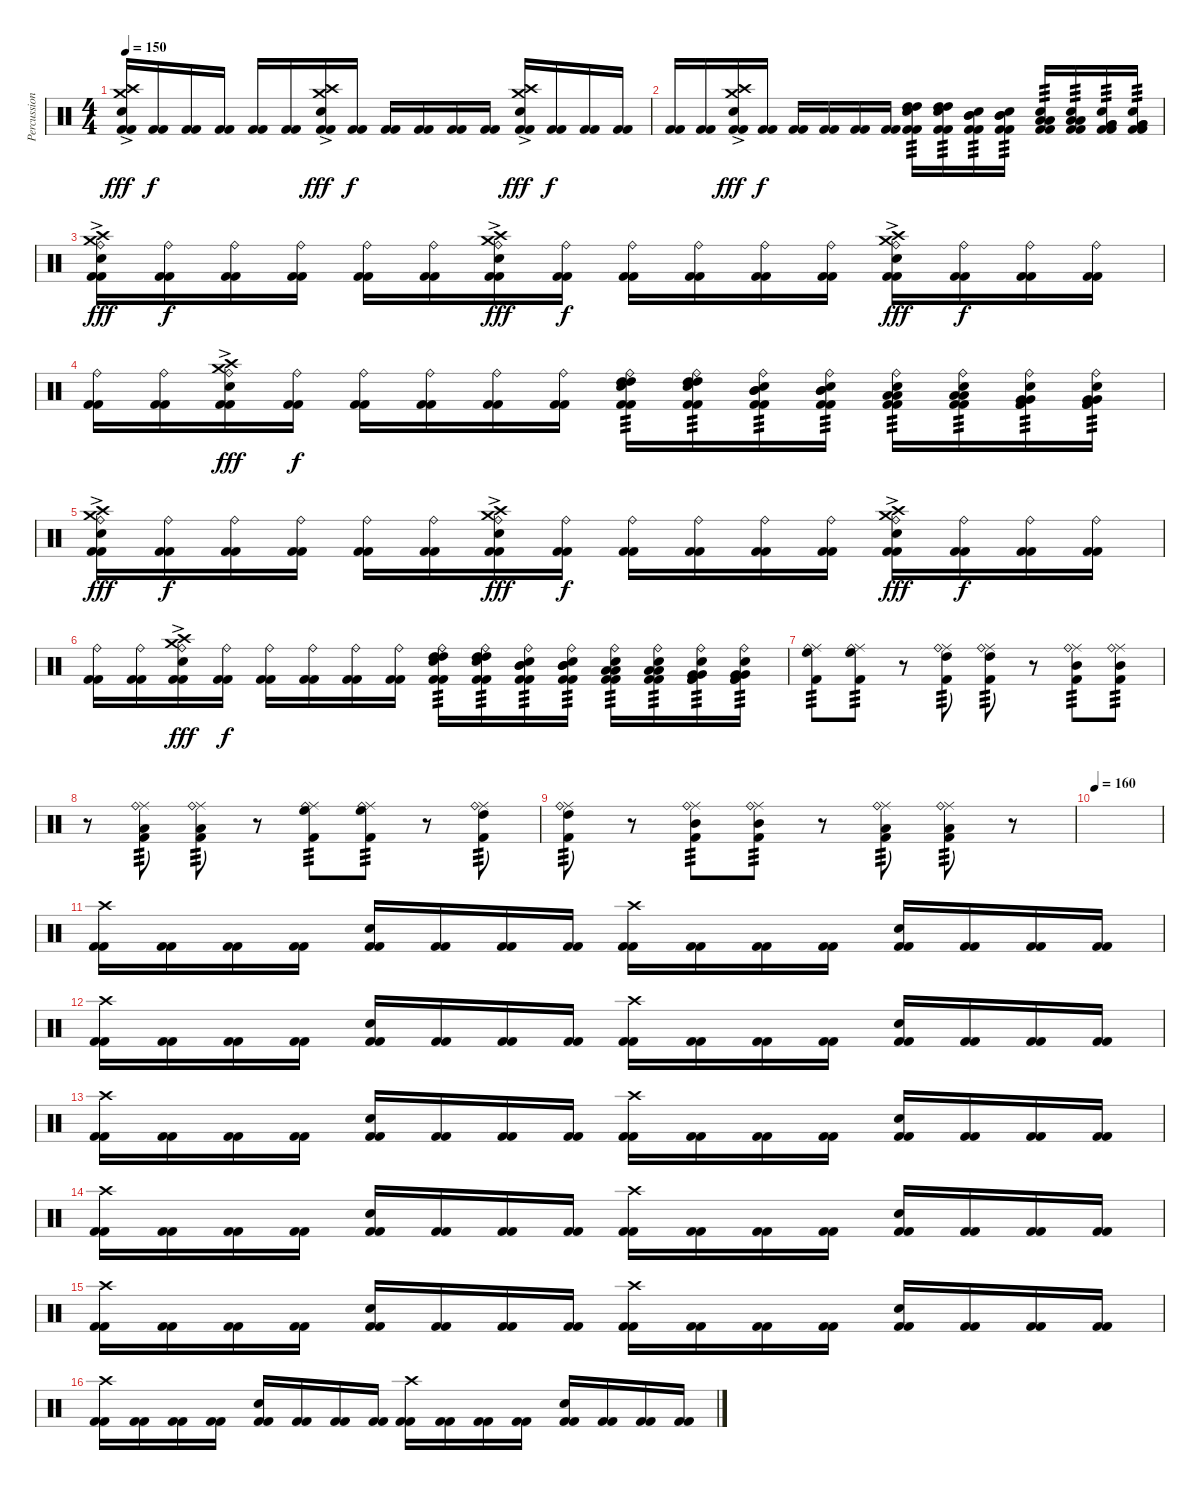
\track ("Percussions" "Percussion") {instrument percussion}
\staff {score}
\articulation defaults
\ts (4 4)
\tempo 150
\clef neutral
\ks c
("Snare (hit) 2"{ac} "Crash medium (hit)"{ac} "Crash high (hit)"{ac} "Kick (hit) 2" "Kick (hit) 2").16{dy fff} ("Kick (hit) 2" "Kick (hit) 2").16{dy f} ("Kick (hit) 2" "Kick (hit) 2").16 ("Kick (hit) 2" "Kick (hit) 2").16 ("Kick (hit) 2" "Kick (hit) 2").16 ("Kick (hit) 2" "Kick (hit) 2").16 ("Snare (hit) 2"{ac} "Crash medium (hit)"{ac} "Crash high (hit)"{ac} "Kick (hit) 2" "Kick (hit) 2").16{dy fff} ("Kick (hit) 2" "Kick (hit) 2").16{dy f} ("Kick (hit) 2" "Kick (hit) 2").16 ("Kick (hit) 2" "Kick (hit) 2").16 ("Kick (hit) 2" "Kick (hit) 2").16 ("Kick (hit) 2" "Kick (hit) 2").16 ("Snare (hit) 2"{ac} "Crash medium (hit)"{ac} "Crash high (hit)"{ac} "Kick (hit) 2" "Kick (hit) 2").16{dy fff} ("Kick (hit) 2" "Kick (hit) 2").16{dy f} ("Kick (hit) 2" "Kick (hit) 2").16 ("Kick (hit) 2" "Kick (hit) 2").16 |
("Kick (hit) 2" "Kick (hit) 2").16 ("Kick (hit) 2" "Kick (hit) 2").16 ("Snare (hit) 2"{ac} "Crash medium (hit)"{ac} "Crash high (hit)"{ac} "Kick (hit) 2" "Kick (hit) 2").16{dy fff} ("Kick (hit) 2" "Kick (hit) 2").16{dy f} ("Kick (hit) 2" "Kick (hit) 2").16 ("Kick (hit) 2" "Kick (hit) 2").16 ("Kick (hit) 2" "Kick (hit) 2").16 ("Kick (hit) 2" "Kick (hit) 2").16 ("Snare (hit) 2" "High Tom (hit)" "High Tom (hit)" "Kick (hit) 2" "Kick (hit) 2").16{tp 3} ("Snare (hit) 2" "High Tom (hit)" "High Tom (hit)" "Kick (hit) 2" "Kick (hit) 2").16{tp 3} ("Snare (hit) 2" "Mid Tom (hit)" "Mid Tom (hit)" "Kick (hit) 2" "Kick (hit) 2").16{tp 3} ("Snare (hit) 2" "Mid Tom (hit)" "Mid Tom (hit)" "Kick (hit) 2" "Kick (hit) 2").16{tp 3} ("Snare (hit) 2" "Low Tom (hit)" "Low Tom (hit)" "Kick (hit) 2" "Kick (hit) 2").16{tp 3} ("Snare (hit) 2" "Low Tom (hit)" "Low Tom (hit)" "Kick (hit) 2" "Kick (hit) 2").16{tp 3} ("Snare (hit) 2" "Very Low Tom (hit)" "Very Low Tom (hit)" "Kick (hit) 2" "Kick (hit) 2").16{tp 3} ("Snare (hit) 2" "Very Low Tom (hit)" "Very Low Tom (hit)" "Kick (hit) 2" "Kick (hit) 2").16{tp 3} |
("Ride (bell)" "Snare (hit) 2"{ac} "Crash medium (hit)"{ac} "Crash high (hit)"{ac} "Kick (hit) 2" "Kick (hit) 2").16{dy fff} ("Ride (bell)" "Kick (hit) 2" "Kick (hit) 2").16{dy f} ("Ride (bell)" "Kick (hit) 2" "Kick (hit) 2").16 ("Ride (bell)" "Kick (hit) 2" "Kick (hit) 2").16 ("Ride (bell)" "Kick (hit) 2" "Kick (hit) 2").16 ("Ride (bell)" "Kick (hit) 2" "Kick (hit) 2").16 ("Ride (bell)" "Snare (hit) 2"{ac} "Crash medium (hit)"{ac} "Crash high (hit)"{ac} "Kick (hit) 2" "Kick (hit) 2").16{dy fff} ("Ride (bell)" "Kick (hit) 2" "Kick (hit) 2").16{dy f} ("Ride (bell)" "Kick (hit) 2" "Kick (hit) 2").16 ("Ride (bell)" "Kick (hit) 2" "Kick (hit) 2").16 ("Ride (bell)" "Kick (hit) 2" "Kick (hit) 2").16 ("Ride (bell)" "Kick (hit) 2" "Kick (hit) 2").16 ("Ride (bell)" "Snare (hit) 2"{ac} "Crash medium (hit)"{ac} "Crash high (hit)"{ac} "Kick (hit) 2" "Kick (hit) 2").16{dy fff} ("Ride (bell)" "Kick (hit) 2" "Kick (hit) 2").16{dy f} ("Ride (bell)" "Kick (hit) 2" "Kick (hit) 2").16 ("Ride (bell)" "Kick (hit) 2" "Kick (hit) 2").16 |
("Ride (bell)" "Kick (hit) 2" "Kick (hit) 2").16 ("Ride (bell)" "Kick (hit) 2" "Kick (hit) 2").16 ("Ride (bell)" "Snare (hit) 2"{ac} "Crash medium (hit)"{ac} "Crash high (hit)"{ac} "Kick (hit) 2" "Kick (hit) 2").16{dy fff} ("Ride (bell)" "Kick (hit) 2" "Kick (hit) 2").16{dy f} ("Ride (bell)" "Kick (hit) 2" "Kick (hit) 2").16 ("Ride (bell)" "Kick (hit) 2" "Kick (hit) 2").16 ("Ride (bell)" "Kick (hit) 2" "Kick (hit) 2").16 ("Ride (bell)" "Kick (hit) 2" "Kick (hit) 2").16 ("Ride (bell)" "Snare (hit) 2" "High Tom (hit)" "High Tom (hit)" "Kick (hit) 2" "Kick (hit) 2").16{tp 3} ("Ride (bell)" "Snare (hit) 2" "High Tom (hit)" "High Tom (hit)" "Kick (hit) 2" "Kick (hit) 2").16{tp 3} ("Ride (bell)" "Snare (hit) 2" "Mid Tom (hit)" "Mid Tom (hit)" "Kick (hit) 2" "Kick (hit) 2").16{tp 3} ("Ride (bell)" "Snare (hit) 2" "Mid Tom (hit)" "Mid Tom (hit)" "Kick (hit) 2" "Kick (hit) 2").16{tp 3} ("Ride (bell)" "Snare (hit) 2" "Low Tom (hit)" "Low Tom (hit)" "Kick (hit) 2" "Kick (hit) 2").16{tp 3} ("Ride (bell)" "Snare (hit) 2" "Low Tom (hit)" "Low Tom (hit)" "Kick (hit) 2" "Kick (hit) 2").16{tp 3} ("Ride (bell)" "Snare (hit) 2" "Very Low Tom (hit)" "Very Low Tom (hit)" "Kick (hit) 2" "Kick (hit) 2").16{tp 3} ("Ride (bell)" "Snare (hit) 2" "Very Low Tom (hit)" "Very Low Tom (hit)" "Kick (hit) 2" "Kick (hit) 2").16{tp 3} |
("Ride (bell)" "Snare (hit) 2"{ac} "Crash medium (hit)"{ac} "Crash high (hit)"{ac} "Kick (hit) 2" "Kick (hit) 2").16{dy fff} ("Ride (bell)" "Kick (hit) 2" "Kick (hit) 2").16{dy f} ("Ride (bell)" "Kick (hit) 2" "Kick (hit) 2").16 ("Ride (bell)" "Kick (hit) 2" "Kick (hit) 2").16 ("Ride (bell)" "Kick (hit) 2" "Kick (hit) 2").16 ("Ride (bell)" "Kick (hit) 2" "Kick (hit) 2").16 ("Ride (bell)" "Snare (hit) 2"{ac} "Crash medium (hit)"{ac} "Crash high (hit)"{ac} "Kick (hit) 2" "Kick (hit) 2").16{dy fff} ("Ride (bell)" "Kick (hit) 2" "Kick (hit) 2").16{dy f} ("Ride (bell)" "Kick (hit) 2" "Kick (hit) 2").16 ("Ride (bell)" "Kick (hit) 2" "Kick (hit) 2").16 ("Ride (bell)" "Kick (hit) 2" "Kick (hit) 2").16 ("Ride (bell)" "Kick (hit) 2" "Kick (hit) 2").16 ("Ride (bell)" "Snare (hit) 2"{ac} "Crash medium (hit)"{ac} "Crash high (hit)"{ac} "Kick (hit) 2" "Kick (hit) 2").16{dy fff} ("Ride (bell)" "Kick (hit) 2" "Kick (hit) 2").16{dy f} ("Ride (bell)" "Kick (hit) 2" "Kick (hit) 2").16 ("Ride (bell)" "Kick (hit) 2" "Kick (hit) 2").16 |
("Ride (bell)" "Kick (hit) 2" "Kick (hit) 2").16 ("Ride (bell)" "Kick (hit) 2" "Kick (hit) 2").16 ("Ride (bell)" "Snare (hit) 2"{ac} "Crash medium (hit)"{ac} "Crash high (hit)"{ac} "Kick (hit) 2" "Kick (hit) 2").16{dy fff} ("Ride (bell)" "Kick (hit) 2" "Kick (hit) 2").16{dy f} ("Ride (bell)" "Kick (hit) 2" "Kick (hit) 2").16 ("Ride (bell)" "Kick (hit) 2" "Kick (hit) 2").16 ("Ride (bell)" "Kick (hit) 2" "Kick (hit) 2").16 ("Ride (bell)" "Kick (hit) 2" "Kick (hit) 2").16 ("Ride (bell)" "Snare (hit) 2" "High Tom (hit)" "High Tom (hit)" "Kick (hit) 2" "Kick (hit) 2").16{tp 3} ("Ride (bell)" "Snare (hit) 2" "High Tom (hit)" "High Tom (hit)" "Kick (hit) 2" "Kick (hit) 2").16{tp 3} ("Ride (bell)" "Snare (hit) 2" "Mid Tom (hit)" "Mid Tom (hit)" "Kick (hit) 2" "Kick (hit) 2").16{tp 3} ("Ride (bell)" "Snare (hit) 2" "Mid Tom (hit)" "Mid Tom (hit)" "Kick (hit) 2" "Kick (hit) 2").16{tp 3} ("Ride (bell)" "Snare (hit) 2" "Low Tom (hit)" "Low Tom (hit)" "Kick (hit) 2" "Kick (hit) 2").16{tp 3} ("Ride (bell)" "Snare (hit) 2" "Low Tom (hit)" "Low Tom (hit)" "Kick (hit) 2" "Kick (hit) 2").16{tp 3} ("Ride (bell)" "Snare (hit) 2" "Very Low Tom (hit)" "Very Low Tom (hit)" "Kick (hit) 2" "Kick (hit) 2").16{tp 3} ("Ride (bell)" "Snare (hit) 2" "Very Low Tom (hit)" "Very Low Tom (hit)" "Kick (hit) 2" "Kick (hit) 2").16{tp 3} |
("High Floor Tom (hit)" "Ride (middle)" "Kick (hit) 2" "Ride (bell)").8{tp 3} ("High Floor Tom (hit)" "Ride (middle)" "Kick (hit) 2" "Ride (bell)").8{tp 3} r.8 ("High Tom (hit)" "Ride (middle)" "Kick (hit) 2" "Ride (bell)").8{tp 3} ("High Tom (hit)" "Ride (middle)" "Kick (hit) 2" "Ride (bell)").8{tp 3} r.8 ("Mid Tom (hit)" "Ride (middle)" "Kick (hit) 2" "Ride (bell)").8{tp 3} ("Mid Tom (hit)" "Ride (middle)" "Kick (hit) 2" "Ride (bell)").8{tp 3} |
r.8 ("Low Tom (hit)" "Ride (middle)" "Kick (hit) 2" "Ride (bell)").8{tp 3} ("Low Tom (hit)" "Ride (middle)" "Kick (hit) 2" "Ride (bell)").8{tp 3} r.8 ("High Floor Tom (hit)" "Ride (middle)" "Kick (hit) 2" "Ride (bell)").8{tp 3} ("High Floor Tom (hit)" "Ride (middle)" "Kick (hit) 2" "Ride (bell)").8{tp 3} r.8 ("High Tom (hit)" "Ride (middle)" "Kick (hit) 2" "Ride (bell)").8{tp 3} |
("High Tom (hit)" "Ride (middle)" "Kick (hit) 2" "Ride (bell)").8{tp 3} r.8 ("Mid Tom (hit)" "Ride (middle)" "Kick (hit) 2" "Ride (bell)").8{tp 3} ("Mid Tom (hit)" "Ride (middle)" "Kick (hit) 2" "Ride (bell)").8{tp 3} r.8 ("Low Tom (hit)" "Ride (middle)" "Kick (hit) 2" "Ride (bell)").8{tp 3} ("Low Tom (hit)" "Ride (middle)" "Kick (hit) 2" "Ride (bell)").8{tp 3} r.8 |
\tempo 160
|
("Crash high (hit)" "Kick (hit) 2" "Kick (hit) 2").16 ("Kick (hit) 2" "Kick (hit) 2").16 ("Kick (hit) 2" "Kick (hit) 2").16 ("Kick (hit) 2" "Kick (hit) 2").16 ("Snare (hit) 2" "Kick (hit) 2" "Kick (hit) 2").16 ("Kick (hit) 2" "Kick (hit) 2").16 ("Kick (hit) 2" "Kick (hit) 2").16 ("Kick (hit) 2" "Kick (hit) 2").16 ("Crash high (hit)" "Kick (hit) 2" "Kick (hit) 2").16 ("Kick (hit) 2" "Kick (hit) 2").16 ("Kick (hit) 2" "Kick (hit) 2").16 ("Kick (hit) 2" "Kick (hit) 2").16 ("Snare (hit) 2" "Kick (hit) 2" "Kick (hit) 2").16 ("Kick (hit) 2" "Kick (hit) 2").16 ("Kick (hit) 2" "Kick (hit) 2").16 ("Kick (hit) 2" "Kick (hit) 2").16 |
("Crash high (hit)" "Kick (hit) 2" "Kick (hit) 2").16 ("Kick (hit) 2" "Kick (hit) 2").16 ("Kick (hit) 2" "Kick (hit) 2").16 ("Kick (hit) 2" "Kick (hit) 2").16 ("Snare (hit) 2" "Kick (hit) 2" "Kick (hit) 2").16 ("Kick (hit) 2" "Kick (hit) 2").16 ("Kick (hit) 2" "Kick (hit) 2").16 ("Kick (hit) 2" "Kick (hit) 2").16 ("Crash high (hit)" "Kick (hit) 2" "Kick (hit) 2").16 ("Kick (hit) 2" "Kick (hit) 2").16 ("Kick (hit) 2" "Kick (hit) 2").16 ("Kick (hit) 2" "Kick (hit) 2").16 ("Snare (hit) 2" "Kick (hit) 2" "Kick (hit) 2").16 ("Kick (hit) 2" "Kick (hit) 2").16 ("Kick (hit) 2" "Kick (hit) 2").16 ("Kick (hit) 2" "Kick (hit) 2").16 |
("Crash high (hit)" "Kick (hit) 2" "Kick (hit) 2").16 ("Kick (hit) 2" "Kick (hit) 2").16 ("Kick (hit) 2" "Kick (hit) 2").16 ("Kick (hit) 2" "Kick (hit) 2").16 ("Snare (hit) 2" "Kick (hit) 2" "Kick (hit) 2").16 ("Kick (hit) 2" "Kick (hit) 2").16 ("Kick (hit) 2" "Kick (hit) 2").16 ("Kick (hit) 2" "Kick (hit) 2").16 ("Crash high (hit)" "Kick (hit) 2" "Kick (hit) 2").16 ("Kick (hit) 2" "Kick (hit) 2").16 ("Kick (hit) 2" "Kick (hit) 2").16 ("Kick (hit) 2" "Kick (hit) 2").16 ("Snare (hit) 2" "Kick (hit) 2" "Kick (hit) 2").16 ("Kick (hit) 2" "Kick (hit) 2").16 ("Kick (hit) 2" "Kick (hit) 2").16 ("Kick (hit) 2" "Kick (hit) 2").16 |
("Crash high (hit)" "Kick (hit) 2" "Kick (hit) 2").16 ("Kick (hit) 2" "Kick (hit) 2").16 ("Kick (hit) 2" "Kick (hit) 2").16 ("Kick (hit) 2" "Kick (hit) 2").16 ("Snare (hit) 2" "Kick (hit) 2" "Kick (hit) 2").16 ("Kick (hit) 2" "Kick (hit) 2").16 ("Kick (hit) 2" "Kick (hit) 2").16 ("Kick (hit) 2" "Kick (hit) 2").16 ("Crash high (hit)" "Kick (hit) 2" "Kick (hit) 2").16 ("Kick (hit) 2" "Kick (hit) 2").16 ("Kick (hit) 2" "Kick (hit) 2").16 ("Kick (hit) 2" "Kick (hit) 2").16 ("Snare (hit) 2" "Kick (hit) 2" "Kick (hit) 2").16 ("Kick (hit) 2" "Kick (hit) 2").16 ("Kick (hit) 2" "Kick (hit) 2").16 ("Kick (hit) 2" "Kick (hit) 2").16 |
("Crash high (hit)" "Kick (hit) 2" "Kick (hit) 2").16 ("Kick (hit) 2" "Kick (hit) 2").16 ("Kick (hit) 2" "Kick (hit) 2").16 ("Kick (hit) 2" "Kick (hit) 2").16 ("Snare (hit) 2" "Kick (hit) 2" "Kick (hit) 2").16 ("Kick (hit) 2" "Kick (hit) 2").16 ("Kick (hit) 2" "Kick (hit) 2").16 ("Kick (hit) 2" "Kick (hit) 2").16 ("Crash high (hit)" "Kick (hit) 2" "Kick (hit) 2").16 ("Kick (hit) 2" "Kick (hit) 2").16 ("Kick (hit) 2" "Kick (hit) 2").16 ("Kick (hit) 2" "Kick (hit) 2").16 ("Snare (hit) 2" "Kick (hit) 2" "Kick (hit) 2").16 ("Kick (hit) 2" "Kick (hit) 2").16 ("Kick (hit) 2" "Kick (hit) 2").16 ("Kick (hit) 2" "Kick (hit) 2").16 |
("Crash high (hit)" "Kick (hit) 2" "Kick (hit) 2").16 ("Kick (hit) 2" "Kick (hit) 2").16 ("Kick (hit) 2" "Kick (hit) 2").16 ("Kick (hit) 2" "Kick (hit) 2").16 ("Snare (hit) 2" "Kick (hit) 2" "Kick (hit) 2").16 ("Kick (hit) 2" "Kick (hit) 2").16 ("Kick (hit) 2" "Kick (hit) 2").16 ("Kick (hit) 2" "Kick (hit) 2").16 ("Crash high (hit)" "Kick (hit) 2" "Kick (hit) 2").16 ("Kick (hit) 2" "Kick (hit) 2").16 ("Kick (hit) 2" "Kick (hit) 2").16 ("Kick (hit) 2" "Kick (hit) 2").16 ("Snare (hit) 2" "Kick (hit) 2" "Kick (hit) 2").16 ("Kick (hit) 2" "Kick (hit) 2").16 ("Kick (hit) 2" "Kick (hit) 2").16 ("Kick (hit) 2" "Kick (hit) 2").16
